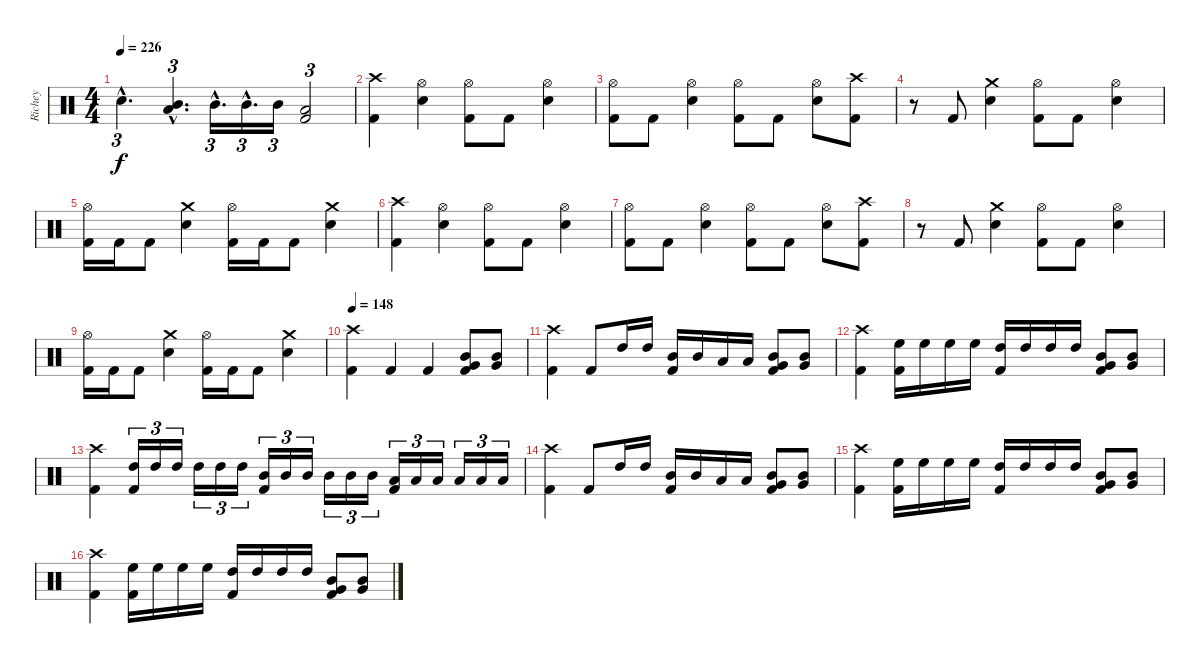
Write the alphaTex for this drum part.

\track ("Richey" "Richey") {instrument percussion}
\staff {score}
\articulation defaults
\ts (4 4)
\tempo 226
\clef neutral
\ks c "Snare (hit) 2"{hac}.4{d tu (3 2) dy f}
("Mid Tom (hit)"{hac} "Low Tom (hit)"{hac}).4{d tu (3 2)} "Mid Tom (hit)"{hac}.16{d tu (3 2)} "Mid Tom (hit)"{hac}.16{d tu (3 2)} "Mid Tom (hit)".16{tu (3 2)} ("Low Tom (hit)" "Kick (hit) 2").2{tu (3 2)} |
("Crash high (hit)" "Kick (hit) 2").4 ("Hi-Hat (open)" "Snare (hit) 2").4 ("Hi-Hat (open)" "Kick (hit) 2").8 "Kick (hit) 2".8 ("Hi-Hat (open)" "Snare (hit) 2").4 |
("Hi-Hat (open)" "Kick (hit) 2").8 "Kick (hit) 2".8 ("Hi-Hat (open)" "Snare (hit) 2").4 ("Hi-Hat (open)" "Kick (hit) 2").8 "Kick (hit) 2".8 ("Hi-Hat (open)" "Snare (hit) 2").8 ("Crash high (hit)" "Kick (hit) 2").8 |
r.8 "Kick (hit) 2".8 ("Crash medium (hit)" "Snare (hit) 2").4 ("Hi-Hat (open)" "Kick (hit) 2").8 "Kick (hit) 2".8 ("Hi-Hat (open)" "Snare (hit) 2").4 |
("Hi-Hat (open)" "Kick (hit) 2").16 "Kick (hit) 2".16 "Kick (hit) 2".8 ("Crash medium (hit)" "Snare (hit) 2").4 ("Hi-Hat (open)" "Kick (hit) 2").16 "Kick (hit) 2".16 "Kick (hit) 2".8 ("Crash medium (hit)" "Snare (hit) 2").4 |
("Crash high (hit)" "Kick (hit) 2").4 ("Hi-Hat (open)" "Snare (hit) 2").4 ("Hi-Hat (open)" "Kick (hit) 2").8 "Kick (hit) 2".8 ("Hi-Hat (open)" "Snare (hit) 2").4 |
("Hi-Hat (open)" "Kick (hit) 2").8 "Kick (hit) 2".8 ("Hi-Hat (open)" "Snare (hit) 2").4 ("Hi-Hat (open)" "Kick (hit) 2").8 "Kick (hit) 2".8 ("Hi-Hat (open)" "Snare (hit) 2").8 ("Crash high (hit)" "Kick (hit) 2").8 |
r.8 "Kick (hit) 2".8 ("Crash medium (hit)" "Snare (hit) 2").4 ("Hi-Hat (open)" "Kick (hit) 2").8 "Kick (hit) 2".8 ("Hi-Hat (open)" "Snare (hit) 2").4 |
("Hi-Hat (open)" "Kick (hit) 2").16 "Kick (hit) 2".16 "Kick (hit) 2".8 ("Crash medium (hit)" "Snare (hit) 2").4 ("Hi-Hat (open)" "Kick (hit) 2").16 "Kick (hit) 2".16 "Kick (hit) 2".8 ("Crash medium (hit)" "Snare (hit) 2").4 |
\tempo 148
("Crash high (hit)" "Kick (hit) 2").4 "Kick (hit) 2".4 "Kick (hit) 2".4 ("Mid Tom (hit)" "Very Low Tom (hit)" "Kick (hit) 2").8 ("Mid Tom (hit)" "Very Low Tom (hit)").8 |
("Crash high (hit)" "Kick (hit) 2").4 "Kick (hit) 2".8 "High Tom (hit)".16 "High Tom (hit)".16 ("Mid Tom (hit)" "Kick (hit) 2").16 "Mid Tom (hit)".16 "Low Tom (hit)".16 "Low Tom (hit)".16 ("Mid Tom (hit)" "Very Low Tom (hit)" "Kick (hit) 2").8 ("Mid Tom (hit)" "Very Low Tom (hit)").8 |
("Crash high (hit)" "Kick (hit) 2").4 ("High Floor Tom (hit)" "Kick (hit) 2").16 "High Floor Tom (hit)".16 "High Floor Tom (hit)".16 "High Floor Tom (hit)".16 ("High Tom (hit)" "Kick (hit) 2").16 "High Tom (hit)".16 "High Tom (hit)".16 "High Tom (hit)".16 ("Mid Tom (hit)" "Very Low Tom (hit)" "Kick (hit) 2").8 ("Mid Tom (hit)" "Very Low Tom (hit)").8 |
("Crash high (hit)" "Kick (hit) 2").4 ("High Tom (hit)" "Kick (hit) 2").16{tu (3 2)} "High Tom (hit)".16{tu (3 2)} "High Tom (hit)".16{tu (3 2)} "High Tom (hit)".16{tu (3 2)} "High Tom (hit)".16{tu (3 2)} "High Tom (hit)".16{tu (3 2)} ("Mid Tom (hit)" "Kick (hit) 2").16{tu (3 2)} "Mid Tom (hit)".16{tu (3 2)} "Mid Tom (hit)".16{tu (3 2)} "Mid Tom (hit)".16{tu (3 2)} "Mid Tom (hit)".16{tu (3 2)} "Mid Tom (hit)".16{tu (3 2)} ("Low Tom (hit)" "Kick (hit) 2").16{tu (3 2)} "Low Tom (hit)".16{tu (3 2)} "Low Tom (hit)".16{tu (3 2)} "Low Tom (hit)".16{tu (3 2)} "Low Tom (hit)".16{tu (3 2)} "Low Tom (hit)".16{tu (3 2)} |
("Crash high (hit)" "Kick (hit) 2").4 "Kick (hit) 2".8 "High Tom (hit)".16 "High Tom (hit)".16 ("Mid Tom (hit)" "Kick (hit) 2").16 "Mid Tom (hit)".16 "Low Tom (hit)".16 "Low Tom (hit)".16 ("Mid Tom (hit)" "Very Low Tom (hit)" "Kick (hit) 2").8 ("Mid Tom (hit)" "Very Low Tom (hit)").8 |
("Crash high (hit)" "Kick (hit) 2").4 ("High Floor Tom (hit)" "Kick (hit) 2").16 "High Floor Tom (hit)".16 "High Floor Tom (hit)".16 "High Floor Tom (hit)".16 ("High Tom (hit)" "Kick (hit) 2").16 "High Tom (hit)".16 "High Tom (hit)".16 "High Tom (hit)".16 ("Mid Tom (hit)" "Very Low Tom (hit)" "Kick (hit) 2").8 ("Mid Tom (hit)" "Very Low Tom (hit)").8 |
("Crash high (hit)" "Kick (hit) 2").4 ("High Floor Tom (hit)" "Kick (hit) 2").16 "High Floor Tom (hit)".16 "High Floor Tom (hit)".16 "High Floor Tom (hit)".16 ("High Tom (hit)" "Kick (hit) 2").16 "High Tom (hit)".16 "High Tom (hit)".16 "High Tom (hit)".16 ("Mid Tom (hit)" "Very Low Tom (hit)" "Kick (hit) 2").8 ("Mid Tom (hit)" "Very Low Tom (hit)").8
